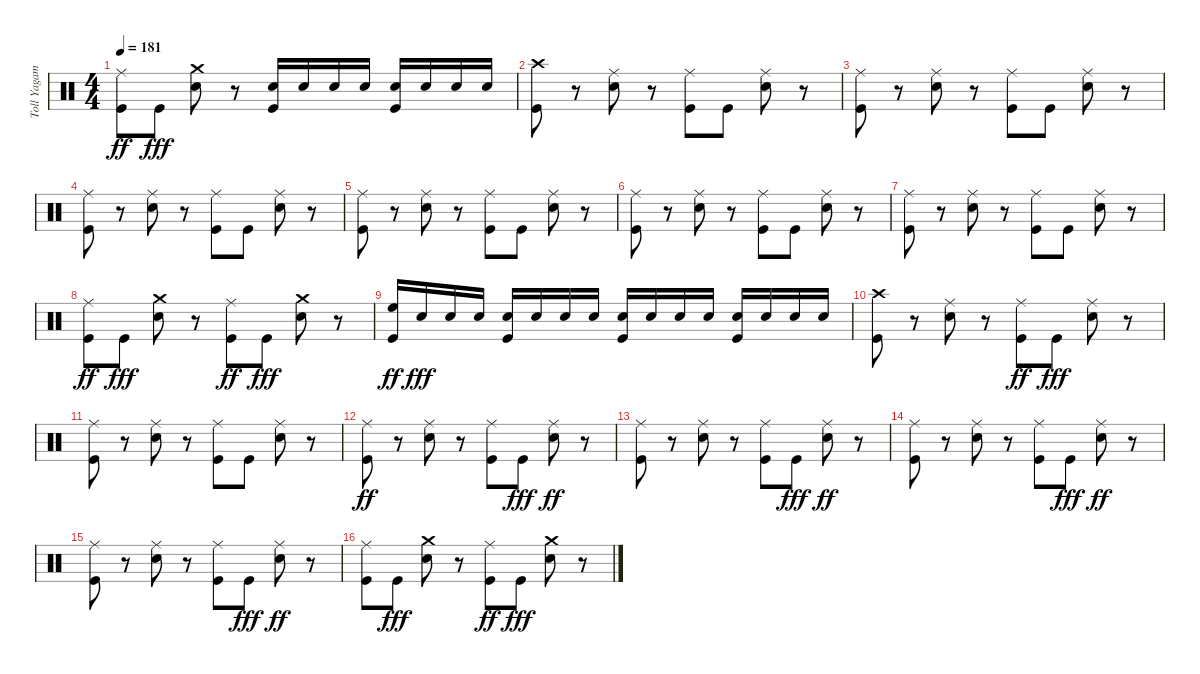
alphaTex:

\track ("Toll Yagami" "Toll Yagam") {instrument percussion}
\staff {score}
\articulation defaults
\ts (4 4)
\tempo 181
\clef neutral
\ks c
("Kick (hit)" "Ride (middle)").8{dy ff} "Kick (hit)".8{dy fff} ("Snare (hit) 2" "Crash medium (hit)").8 r.8 ("Snare (hit) 2" "Kick (hit)").16 "Snare (hit) 2".16 "Snare (hit) 2".16 "Snare (hit) 2".16 ("Snare (hit) 2" "Kick (hit)").16 "Snare (hit) 2".16 "Snare (hit) 2".16 "Snare (hit) 2".16 |
("Crash high (hit)" "Kick (hit)").8 r.8 ("Ride (middle)" "Snare (hit) 2").8 r.8 ("Ride (middle)" "Kick (hit)").8 "Kick (hit)".8 ("Ride (middle)" "Snare (hit) 2").8 r.8 |
("Ride (middle)" "Kick (hit)").8 r.8 ("Ride (middle)" "Snare (hit) 2").8 r.8 ("Ride (middle)" "Kick (hit)").8 "Kick (hit)".8 ("Ride (middle)" "Snare (hit) 2").8 r.8 |
("Ride (middle)" "Kick (hit)").8 r.8 ("Ride (middle)" "Snare (hit) 2").8 r.8 ("Ride (middle)" "Kick (hit)").8 "Kick (hit)".8 ("Ride (middle)" "Snare (hit) 2").8 r.8 |
("Ride (middle)" "Kick (hit)").8 r.8 ("Ride (middle)" "Snare (hit) 2").8 r.8 ("Ride (middle)" "Kick (hit)").8 "Kick (hit)".8 ("Ride (middle)" "Snare (hit) 2").8 r.8 |
("Ride (middle)" "Kick (hit)").8 r.8 ("Ride (middle)" "Snare (hit) 2").8 r.8 ("Ride (middle)" "Kick (hit)").8 "Kick (hit)".8 ("Ride (middle)" "Snare (hit) 2").8 r.8 |
("Ride (middle)" "Kick (hit)").8 r.8 ("Ride (middle)" "Snare (hit) 2").8 r.8 ("Ride (middle)" "Kick (hit)").8 "Kick (hit)".8 ("Ride (middle)" "Snare (hit) 2").8 r.8 |
("Kick (hit)" "Ride (middle)").8{dy ff} "Kick (hit)".8{dy fff} ("Snare (hit) 2" "Crash medium (hit)").8 r.8 ("Kick (hit)" "Ride (middle)").8{dy ff} "Kick (hit)".8{dy fff} ("Snare (hit) 2" "Crash medium (hit)").8 r.8 |
("Kick (hit)" "High Floor Tom (hit)").16{dy ff} "Snare (hit) 2".16{dy fff} "Snare (hit) 2".16 "Snare (hit) 2".16 ("Kick (hit)" "Snare (hit) 2").16 "Snare (hit) 2".16 "Snare (hit) 2".16 "Snare (hit) 2".16 ("Kick (hit)" "Snare (hit) 2").16 "Snare (hit) 2".16 "Snare (hit) 2".16 "Snare (hit) 2".16 ("Kick (hit)" "Snare (hit) 2").16 "Snare (hit) 2".16 "Snare (hit) 2".16 "Snare (hit) 2".16 |
("Kick (hit)" "Crash high (hit)").8 r.8 ("Ride (middle)" "Snare (hit) 2").8 r.8 ("Kick (hit)" "Ride (middle)").8{dy ff} "Kick (hit)".8{dy fff} ("Ride (middle)" "Snare (hit) 2").8 r.8 |
("Ride (middle)" "Kick (hit)").8 r.8 ("Ride (middle)" "Snare (hit) 2").8 r.8 ("Ride (middle)" "Kick (hit)").8 "Kick (hit)".8 ("Ride (middle)" "Snare (hit) 2").8 r.8 |
("Kick (hit)" "Ride (middle)").8{dy ff} r.8 ("Snare (hit) 2" "Ride (middle)").8 r.8 ("Kick (hit)" "Ride (middle)").8 "Kick (hit)".8{dy fff} ("Snare (hit) 2" "Ride (middle)").8{dy ff} r.8 |
("Kick (hit)" "Ride (middle)").8 r.8 ("Snare (hit) 2" "Ride (middle)").8 r.8 ("Kick (hit)" "Ride (middle)").8 "Kick (hit)".8{dy fff} ("Snare (hit) 2" "Ride (middle)").8{dy ff} r.8 |
("Kick (hit)" "Ride (middle)").8 r.8 ("Snare (hit) 2" "Ride (middle)").8 r.8 ("Kick (hit)" "Ride (middle)").8 "Kick (hit)".8{dy fff} ("Snare (hit) 2" "Ride (middle)").8{dy ff} r.8 |
("Kick (hit)" "Ride (middle)").8 r.8 ("Snare (hit) 2" "Ride (middle)").8 r.8 ("Kick (hit)" "Ride (middle)").8 "Kick (hit)".8{dy fff} ("Snare (hit) 2" "Ride (middle)").8{dy ff} r.8 |
("Kick (hit)" "Ride (middle)").8 "Kick (hit)".8{dy fff} ("Crash medium (hit)" "Snare (hit) 2").8 r.8 ("Kick (hit)" "Ride (middle)").8{dy ff} "Kick (hit)".8{dy fff} ("Crash medium (hit)" "Snare (hit) 2").8 r.8
